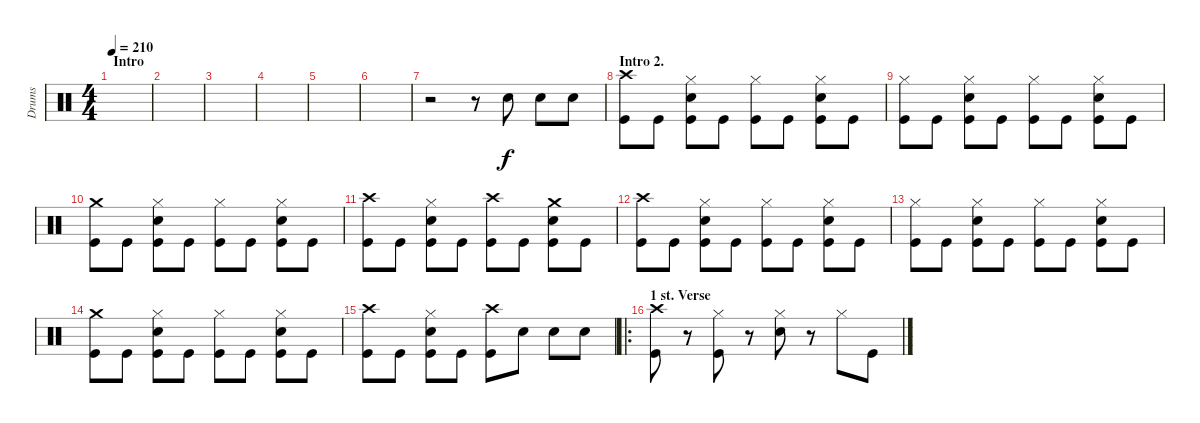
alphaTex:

\track ("Drums" "Drums") {instrument percussion}
\staff {score}
\articulation defaults
\ts (4 4)
\section ("" "Intro")
\tempo 210
\clef neutral
\ks c
|
|
|
|
|
|
r.2 r.8 "Electric Snare (hit)".8 "Electric Snare (hit)".8 "Electric Snare (hit)".8 |
\section ("" "Intro 2.")
("Crash high (hit)" "Kick (hit)").8 "Kick (hit)".8 ("Hi-Hat (closed)" "Electric Snare (hit)" "Kick (hit)").8 "Kick (hit)".8 ("Hi-Hat (closed)" "Kick (hit)").8 "Kick (hit)".8 ("Hi-Hat (closed)" "Electric Snare (hit)" "Kick (hit)").8 "Kick (hit)".8 |
("Hi-Hat (closed)" "Kick (hit)").8 "Kick (hit)".8 ("Hi-Hat (closed)" "Electric Snare (hit)" "Kick (hit)").8 "Kick (hit)".8 ("Hi-Hat (closed)" "Kick (hit)").8 "Kick (hit)".8 ("Hi-Hat (closed)" "Electric Snare (hit)" "Kick (hit)").8 "Kick (hit)".8 |
("Crash medium (hit)" "Kick (hit)").8 "Kick (hit)".8 ("Hi-Hat (closed)" "Electric Snare (hit)" "Kick (hit)").8 "Kick (hit)".8 ("Hi-Hat (closed)" "Kick (hit)").8 "Kick (hit)".8 ("Hi-Hat (closed)" "Electric Snare (hit)" "Kick (hit)").8 "Kick (hit)".8 |
("Crash high (hit)" "Kick (hit)").8 "Kick (hit)".8 ("Hi-Hat (closed)" "Electric Snare (hit)" "Kick (hit)").8 "Kick (hit)".8 ("Crash high (hit)" "Kick (hit)").8 "Kick (hit)".8 ("Crash medium (hit)" "Electric Snare (hit)" "Kick (hit)").8 "Kick (hit)".8 |
("Crash high (hit)" "Kick (hit)").8 "Kick (hit)".8 ("Hi-Hat (closed)" "Electric Snare (hit)" "Kick (hit)").8 "Kick (hit)".8 ("Hi-Hat (closed)" "Kick (hit)").8 "Kick (hit)".8 ("Hi-Hat (closed)" "Electric Snare (hit)" "Kick (hit)").8 "Kick (hit)".8 |
("Hi-Hat (closed)" "Kick (hit)").8 "Kick (hit)".8 ("Hi-Hat (closed)" "Electric Snare (hit)" "Kick (hit)").8 "Kick (hit)".8 ("Hi-Hat (closed)" "Kick (hit)").8 "Kick (hit)".8 ("Hi-Hat (closed)" "Electric Snare (hit)" "Kick (hit)").8 "Kick (hit)".8 |
("Crash medium (hit)" "Kick (hit)").8 "Kick (hit)".8 ("Hi-Hat (closed)" "Electric Snare (hit)" "Kick (hit)").8 "Kick (hit)".8 ("Hi-Hat (closed)" "Kick (hit)").8 "Kick (hit)".8 ("Hi-Hat (closed)" "Electric Snare (hit)" "Kick (hit)").8 "Kick (hit)".8 |
("Crash high (hit)" "Kick (hit)").8 "Kick (hit)".8 ("Hi-Hat (closed)" "Electric Snare (hit)" "Kick (hit)").8 "Kick (hit)".8 ("Crash high (hit)" "Kick (hit)").8 "Electric Snare (hit)".8 "Electric Snare (hit)".8 "Electric Snare (hit)".8 |
\ro
\section ("" "1 st. Verse")
("Crash high (hit)" "Kick (hit)").8 r.8 ("Hi-Hat (closed)" "Kick (hit)").8 r.8 ("Hi-Hat (closed)" "Electric Snare (hit)").8 r.8 "Hi-Hat (closed)".8 "Kick (hit)".8
